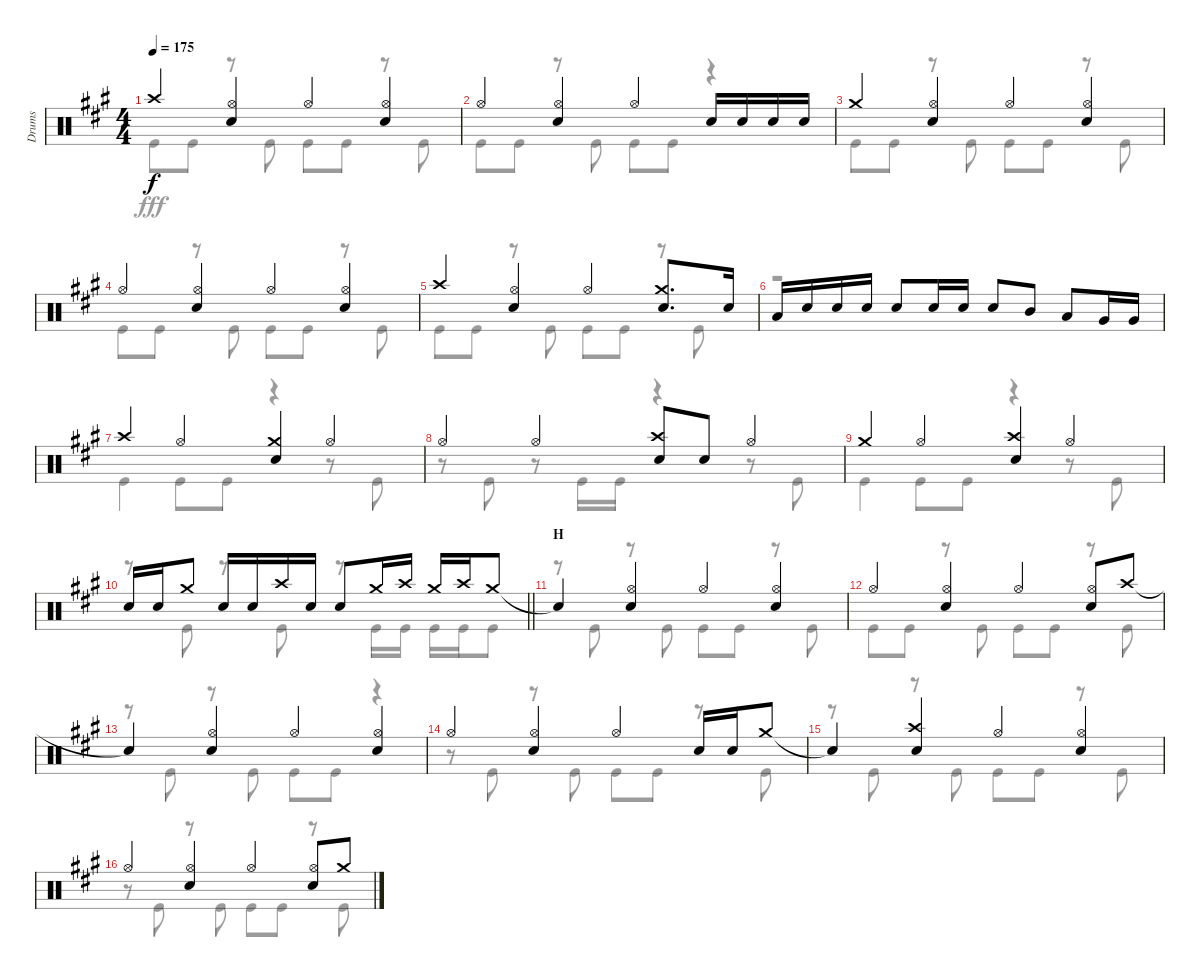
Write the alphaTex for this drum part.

\track ("Drums" "Drums") {instrument percussion}
\staff {score}
\articulation defaults
\voice
\ts (4 4)
\tempo 175
\clef neutral
\ks a "Crash high (hit)".4{dy f}
("Hi-Hat (open)" "Snare (hit) 2").4 "Hi-Hat (open)".4 ("Hi-Hat (open)" "Snare (hit) 2").4 |
"Hi-Hat (open)".4 ("Hi-Hat (open)" "Snare (hit) 2").4 "Hi-Hat (open)".4 "Snare (hit) 2".16 "Snare (hit) 2".16 "Snare (hit) 2".16 "Snare (hit) 2".16 |
"Crash medium (hit)".4 ("Hi-Hat (open)" "Snare (hit) 2").4 "Hi-Hat (open)".4 ("Hi-Hat (open)" "Snare (hit) 2").4 |
"Hi-Hat (open)".4 ("Hi-Hat (open)" "Snare (hit) 2").4 "Hi-Hat (open)".4 ("Hi-Hat (open)" "Snare (hit) 2").4 |
"Crash high (hit)".4 ("Hi-Hat (open)" "Snare (hit) 2").4 "Hi-Hat (open)".4 ("Crash medium (hit)" "Snare (hit) 2").8{d} "Snare (hit) 2".16 |
"Low Tom (hit)".16 "Snare (hit) 2".16 "Snare (hit) 2".16 "Snare (hit) 2".16 "Snare (hit) 2".8 "Snare (hit) 2".16 "Snare (hit) 2".16 "Snare (hit) 2".8 "Mid Tom (hit)".8 "Low Tom (hit)".8 "Very Low Tom (hit)".16 "Very Low Tom (hit)".16 |
"Crash high (hit)".4 "Hi-Hat (open)".4 ("Crash medium (hit)" "Snare (hit) 2").4 "Hi-Hat (open)".4 |
"Hi-Hat (open)".4 "Hi-Hat (open)".4 ("Crash high (hit)" "Snare (hit) 2").8 "Snare (hit) 2".8 "Hi-Hat (open)".4 |
"Crash medium (hit)".4 "Hi-Hat (open)".4 ("Crash high (hit)" "Snare (hit) 2").4 "Hi-Hat (open)".4 |
\barLineRight lightlight "Snare (hit) 2".16 "Snare (hit) 2".16 "Crash medium (hit)".8 "Snare (hit) 2".16 "Snare (hit) 2".16 "Crash high (hit)".16 "Snare (hit) 2".16 "Snare (hit) 2".8 "Crash medium (hit)".16 "Crash high (hit)".16 "Crash medium (hit)".16 "Crash high (hit)".16 "Crash medium (hit)".8
|
\section ("" "H")
"Snare (hit)"{t}.4 ("Hi-Hat (open)" "Snare (hit) 2").4 "Hi-Hat (open)".4 ("Hi-Hat (open)" "Snare (hit) 2").4 |
"Hi-Hat (open)".4 ("Hi-Hat (open)" "Snare (hit) 2").4 "Hi-Hat (open)".4 ("Hi-Hat (open)" "Snare (hit) 2").8 "Crash high (hit)".8 |
"Snare (hit)"{t}.4 ("Hi-Hat (open)" "Snare (hit) 2").4 "Hi-Hat (open)".4 ("Hi-Hat (open)" "Snare (hit) 2").4 |
"Hi-Hat (open)".4 ("Hi-Hat (open)" "Snare (hit) 2").4 "Hi-Hat (open)".4 "Snare (hit) 2".16 "Snare (hit) 2".16 "Crash medium (hit)".8 |
"Snare (hit)"{t}.4 ("Crash high (hit)" "Snare (hit) 2").4 "Hi-Hat (open)".4 ("Hi-Hat (open)" "Snare (hit) 2").4 |
"Hi-Hat (open)".4 ("Hi-Hat (open)" "Snare (hit) 2").4 "Hi-Hat (open)".4 ("Hi-Hat (open)" "Snare (hit) 2").8 "Crash medium (hit)".8
\voice
\clef neutral
\ottava regular
\simile none
\ks a "Kick (hit)".8{dy fff} "Kick (hit)".8
r.8 "Kick (hit)".8 "Kick (hit)".8 "Kick (hit)".8 r.8 "Kick (hit)".8 |
"Kick (hit)".8 "Kick (hit)".8 r.8 "Kick (hit)".8 "Kick (hit)".8 "Kick (hit)".8 r.4 |
"Kick (hit)".8 "Kick (hit)".8 r.8 "Kick (hit)".8 "Kick (hit)".8 "Kick (hit)".8 r.8 "Kick (hit)".8 |
"Kick (hit)".8 "Kick (hit)".8 r.8 "Kick (hit)".8 "Kick (hit)".8 "Kick (hit)".8 r.8 "Kick (hit)".8 |
"Kick (hit)".8 "Kick (hit)".8 r.8 "Kick (hit)".8 "Kick (hit)".8 "Kick (hit)".8 r.8 "Kick (hit)".8 |
r.1 |
"Kick (hit)".4 "Kick (hit)".8 "Kick (hit)".8 r.4 r.8 "Kick (hit)".8 |
r.8 "Kick (hit)".8 r.8 "Kick (hit)".16 "Kick (hit)".16 r.4 r.8 "Kick (hit)".8 |
"Kick (hit)".4 "Kick (hit)".8 "Kick (hit)".8 r.4 r.8 "Kick (hit)".8 |
\barLineRight lightlight
r.8 "Kick (hit)".8 r.8 "Kick (hit)".8 r.8 "Kick (hit)".16 "Kick (hit)".16 "Kick (hit)".16 "Kick (hit)".16 "Kick (hit)".8 |
r.8 "Kick (hit)".8 r.8 "Kick (hit)".8 "Kick (hit)".8 "Kick (hit)".8 r.8 "Kick (hit)".8 |
"Kick (hit)".8 "Kick (hit)".8 r.8 "Kick (hit)".8 "Kick (hit)".8 "Kick (hit)".8 r.8 "Kick (hit)".8 |
r.8 "Kick (hit)".8 r.8 "Kick (hit)".8 "Kick (hit)".8 "Kick (hit)".8 r.4 |
r.8 "Kick (hit)".8 r.8 "Kick (hit)".8 "Kick (hit)".8 "Kick (hit)".8 r.8 "Kick (hit)".8 |
r.8 "Kick (hit)".8 r.8 "Kick (hit)".8 "Kick (hit)".8 "Kick (hit)".8 r.8 "Kick (hit)".8 |
r.8 "Kick (hit)".8 r.8 "Kick (hit)".8 "Kick (hit)".8 "Kick (hit)".8 r.8 "Kick (hit)".8
